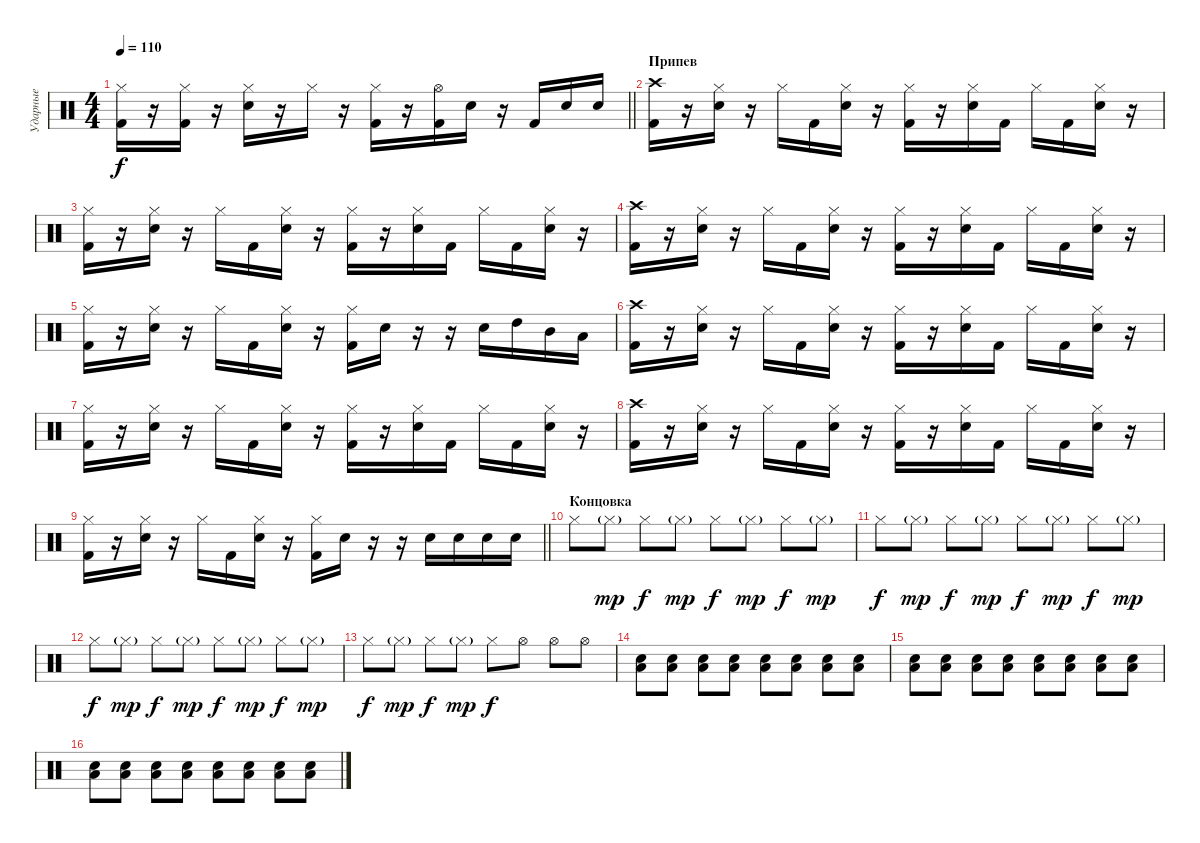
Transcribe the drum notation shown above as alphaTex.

\track ("Ударные" "Ударные") {instrument percussion}
\staff {score}
\articulation defaults
\ts (4 4)
\tempo 110
\clef neutral
\barLineRight lightlight
\ks c
("Hi-Hat (closed)" "Kick (hit) 2").16{dy f} r.16 ("Hi-Hat (closed)" "Kick (hit) 2").16 r.16 ("Hi-Hat (closed)" "Electric Snare (hit)").16 r.16 "Hi-Hat (closed)".16 r.16 ("Hi-Hat (closed)" "Kick (hit) 2").16 r.16 ("Hi-Hat (open)" "Kick (hit) 2").16 "Electric Snare (hit)".16 r.16 "Kick (hit) 2".16 "Electric Snare (hit)".16 "Electric Snare (hit)".16 |
\section ("" "Припев")
("Crash high (hit)" "Kick (hit) 2").16 r.16 ("Hi-Hat (closed)" "Electric Snare (hit)").16 r.16 "Hi-Hat (closed)".16 "Kick (hit) 2".16 ("Hi-Hat (closed)" "Electric Snare (hit)").16 r.16 ("Hi-Hat (closed)" "Kick (hit) 2").16 r.16 ("Hi-Hat (closed)" "Electric Snare (hit)").16 "Kick (hit) 2".16 "Hi-Hat (closed)".16 "Kick (hit) 2".16 ("Hi-Hat (closed)" "Electric Snare (hit)").16 r.16 |
("Hi-Hat (closed)" "Kick (hit) 2").16 r.16 ("Hi-Hat (closed)" "Electric Snare (hit)").16 r.16 "Hi-Hat (closed)".16 "Kick (hit) 2".16 ("Hi-Hat (closed)" "Electric Snare (hit)").16 r.16 ("Hi-Hat (closed)" "Kick (hit) 2").16 r.16 ("Hi-Hat (closed)" "Electric Snare (hit)").16 "Kick (hit) 2".16 "Hi-Hat (closed)".16 "Kick (hit) 2".16 ("Hi-Hat (closed)" "Electric Snare (hit)").16 r.16 |
("Crash high (hit)" "Kick (hit) 2").16 r.16 ("Hi-Hat (closed)" "Electric Snare (hit)").16 r.16 "Hi-Hat (closed)".16 "Kick (hit) 2".16 ("Hi-Hat (closed)" "Electric Snare (hit)").16 r.16 ("Hi-Hat (closed)" "Kick (hit) 2").16 r.16 ("Hi-Hat (closed)" "Electric Snare (hit)").16 "Kick (hit) 2".16 "Hi-Hat (closed)".16 "Kick (hit) 2".16 ("Hi-Hat (closed)" "Electric Snare (hit)").16 r.16 |
("Hi-Hat (closed)" "Kick (hit) 2").16 r.16 ("Hi-Hat (closed)" "Electric Snare (hit)").16 r.16 "Hi-Hat (closed)".16 "Kick (hit) 2".16 ("Hi-Hat (closed)" "Electric Snare (hit)").16 r.16 ("Hi-Hat (closed)" "Kick (hit) 2").16 "Electric Snare (hit)".16 r.16 r.16 "Electric Snare (hit)".16 "High Tom (hit)".16 "Mid Tom (hit)".16 "Low Tom (hit)".16 |
("Crash high (hit)" "Kick (hit) 2").16 r.16 ("Hi-Hat (closed)" "Electric Snare (hit)").16 r.16 "Hi-Hat (closed)".16 "Kick (hit) 2".16 ("Hi-Hat (closed)" "Electric Snare (hit)").16 r.16 ("Hi-Hat (closed)" "Kick (hit) 2").16 r.16 ("Hi-Hat (closed)" "Electric Snare (hit)").16 "Kick (hit) 2".16 "Hi-Hat (closed)".16 "Kick (hit) 2".16 ("Hi-Hat (closed)" "Electric Snare (hit)").16 r.16 |
("Hi-Hat (closed)" "Kick (hit) 2").16 r.16 ("Hi-Hat (closed)" "Electric Snare (hit)").16 r.16 "Hi-Hat (closed)".16 "Kick (hit) 2".16 ("Hi-Hat (closed)" "Electric Snare (hit)").16 r.16 ("Hi-Hat (closed)" "Kick (hit) 2").16 r.16 ("Hi-Hat (closed)" "Electric Snare (hit)").16 "Kick (hit) 2".16 "Hi-Hat (closed)".16 "Kick (hit) 2".16 ("Hi-Hat (closed)" "Electric Snare (hit)").16 r.16 |
("Crash high (hit)" "Kick (hit) 2").16 r.16 ("Hi-Hat (closed)" "Electric Snare (hit)").16 r.16 "Hi-Hat (closed)".16 "Kick (hit) 2".16 ("Hi-Hat (closed)" "Electric Snare (hit)").16 r.16 ("Hi-Hat (closed)" "Kick (hit) 2").16 r.16 ("Hi-Hat (closed)" "Electric Snare (hit)").16 "Kick (hit) 2".16 "Hi-Hat (closed)".16 "Kick (hit) 2".16 ("Hi-Hat (closed)" "Electric Snare (hit)").16 r.16 |
\barLineRight lightlight
("Hi-Hat (closed)" "Kick (hit) 2").16 r.16 ("Hi-Hat (closed)" "Electric Snare (hit)").16 r.16 "Hi-Hat (closed)".16 "Kick (hit) 2".16 ("Hi-Hat (closed)" "Electric Snare (hit)").16 r.16 ("Hi-Hat (closed)" "Kick (hit) 2").16 "Electric Snare (hit)".16 r.16 r.16 "Electric Snare (hit)".16 "Electric Snare (hit)".16 "Electric Snare (hit)".16 "Electric Snare (hit)".16 |
\section ("" "Концовка")
"Hi-Hat (closed)".8 "Hi-Hat (closed)"{g}.8{dy mp} "Hi-Hat (closed)".8{dy f} "Hi-Hat (closed)"{g}.8{dy mp} "Hi-Hat (closed)".8{dy f} "Hi-Hat (closed)"{g}.8{dy mp} "Hi-Hat (closed)".8{dy f} "Hi-Hat (closed)"{g}.8{dy mp} |
"Hi-Hat (closed)".8{dy f} "Hi-Hat (closed)"{g}.8{dy mp} "Hi-Hat (closed)".8{dy f} "Hi-Hat (closed)"{g}.8{dy mp} "Hi-Hat (closed)".8{dy f} "Hi-Hat (closed)"{g}.8{dy mp} "Hi-Hat (closed)".8{dy f} "Hi-Hat (closed)"{g}.8{dy mp} |
"Hi-Hat (closed)".8{dy f} "Hi-Hat (closed)"{g}.8{dy mp} "Hi-Hat (closed)".8{dy f} "Hi-Hat (closed)"{g}.8{dy mp} "Hi-Hat (closed)".8{dy f} "Hi-Hat (closed)"{g}.8{dy mp} "Hi-Hat (closed)".8{dy f} "Hi-Hat (closed)"{g}.8{dy mp} |
"Hi-Hat (closed)".8{dy f} "Hi-Hat (closed)"{g}.8{dy mp} "Hi-Hat (closed)".8{dy f} "Hi-Hat (closed)"{g}.8{dy mp} "Hi-Hat (closed)".8{dy f} "Hi-Hat (open)".8 "Hi-Hat (open)".8 "Hi-Hat (open)".8 |
("Low Tom (hit)" "Electric Snare (hit)").8 ("Low Tom (hit)" "Electric Snare (hit)").8 ("Low Tom (hit)" "Electric Snare (hit)").8 ("Low Tom (hit)" "Electric Snare (hit)").8 ("Low Tom (hit)" "Electric Snare (hit)").8 ("Low Tom (hit)" "Electric Snare (hit)").8 ("Low Tom (hit)" "Electric Snare (hit)").8 ("Low Tom (hit)" "Electric Snare (hit)").8 |
("Low Tom (hit)" "Electric Snare (hit)").8 ("Low Tom (hit)" "Electric Snare (hit)").8 ("Low Tom (hit)" "Electric Snare (hit)").8 ("Low Tom (hit)" "Electric Snare (hit)").8 ("Low Tom (hit)" "Electric Snare (hit)").8 ("Low Tom (hit)" "Electric Snare (hit)").8 ("Low Tom (hit)" "Electric Snare (hit)").8 ("Low Tom (hit)" "Electric Snare (hit)").8 |
("Low Tom (hit)" "Electric Snare (hit)").8 ("Low Tom (hit)" "Electric Snare (hit)").8 ("Low Tom (hit)" "Electric Snare (hit)").8 ("Low Tom (hit)" "Electric Snare (hit)").8 ("Low Tom (hit)" "Electric Snare (hit)").8 ("Low Tom (hit)" "Electric Snare (hit)").8 ("Low Tom (hit)" "Electric Snare (hit)").8 ("Low Tom (hit)" "Electric Snare (hit)").8
